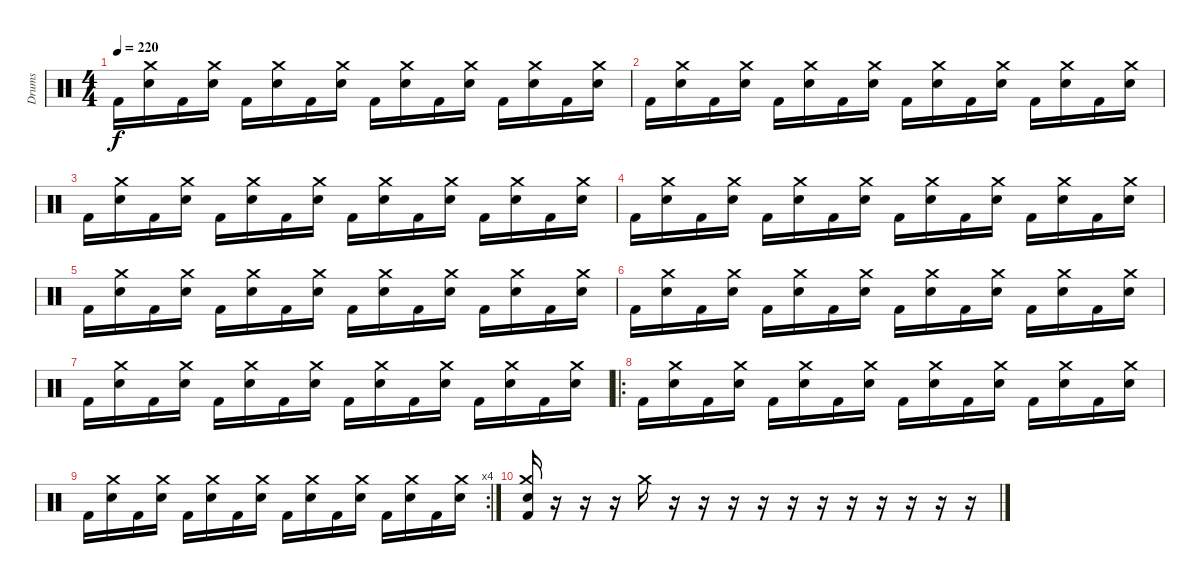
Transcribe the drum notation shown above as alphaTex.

\track ("Drums" "Drums") {instrument percussion}
\staff {score}
\articulation defaults
\ts (4 4)
\tempo 220
\clef neutral
\ks c "Kick (hit) 2".16{dy f}
("Crash medium (hit)" "Electric Snare (hit)").16 "Kick (hit) 2".16 ("Crash medium (hit)" "Electric Snare (hit)").16 "Kick (hit) 2".16 ("Crash medium (hit)" "Electric Snare (hit)").16 "Kick (hit) 2".16 ("Crash medium (hit)" "Electric Snare (hit)").16 "Kick (hit) 2".16 ("Crash medium (hit)" "Electric Snare (hit)").16 "Kick (hit) 2".16 ("Crash medium (hit)" "Electric Snare (hit)").16 "Kick (hit) 2".16 ("Crash medium (hit)" "Electric Snare (hit)").16 "Kick (hit) 2".16 ("Crash medium (hit)" "Electric Snare (hit)").16 |
"Kick (hit) 2".16 ("Crash medium (hit)" "Electric Snare (hit)").16 "Kick (hit) 2".16 ("Crash medium (hit)" "Electric Snare (hit)").16 "Kick (hit) 2".16 ("Crash medium (hit)" "Electric Snare (hit)").16 "Kick (hit) 2".16 ("Crash medium (hit)" "Electric Snare (hit)").16 "Kick (hit) 2".16 ("Crash medium (hit)" "Electric Snare (hit)").16 "Kick (hit) 2".16 ("Crash medium (hit)" "Electric Snare (hit)").16 "Kick (hit) 2".16 ("Crash medium (hit)" "Electric Snare (hit)").16 "Kick (hit) 2".16 ("Crash medium (hit)" "Electric Snare (hit)").16 |
"Kick (hit) 2".16 ("Crash medium (hit)" "Electric Snare (hit)").16 "Kick (hit) 2".16 ("Crash medium (hit)" "Electric Snare (hit)").16 "Kick (hit) 2".16 ("Crash medium (hit)" "Electric Snare (hit)").16 "Kick (hit) 2".16 ("Crash medium (hit)" "Electric Snare (hit)").16 "Kick (hit) 2".16 ("Crash medium (hit)" "Electric Snare (hit)").16 "Kick (hit) 2".16 ("Crash medium (hit)" "Electric Snare (hit)").16 "Kick (hit) 2".16 ("Crash medium (hit)" "Electric Snare (hit)").16 "Kick (hit) 2".16 ("Crash medium (hit)" "Electric Snare (hit)").16 |
"Kick (hit) 2".16 ("Crash medium (hit)" "Electric Snare (hit)").16 "Kick (hit) 2".16 ("Crash medium (hit)" "Electric Snare (hit)").16 "Kick (hit) 2".16 ("Crash medium (hit)" "Electric Snare (hit)").16 "Kick (hit) 2".16 ("Crash medium (hit)" "Electric Snare (hit)").16 "Kick (hit) 2".16 ("Crash medium (hit)" "Electric Snare (hit)").16 "Kick (hit) 2".16 ("Crash medium (hit)" "Electric Snare (hit)").16 "Kick (hit) 2".16 ("Crash medium (hit)" "Electric Snare (hit)").16 "Kick (hit) 2".16 ("Crash medium (hit)" "Electric Snare (hit)").16 |
"Kick (hit) 2".16 ("Crash medium (hit)" "Electric Snare (hit)").16 "Kick (hit) 2".16 ("Crash medium (hit)" "Electric Snare (hit)").16 "Kick (hit) 2".16 ("Crash medium (hit)" "Electric Snare (hit)").16 "Kick (hit) 2".16 ("Crash medium (hit)" "Electric Snare (hit)").16 "Kick (hit) 2".16 ("Crash medium (hit)" "Electric Snare (hit)").16 "Kick (hit) 2".16 ("Crash medium (hit)" "Electric Snare (hit)").16 "Kick (hit) 2".16 ("Crash medium (hit)" "Electric Snare (hit)").16 "Kick (hit) 2".16 ("Crash medium (hit)" "Electric Snare (hit)").16 |
"Kick (hit) 2".16 ("Crash medium (hit)" "Electric Snare (hit)").16 "Kick (hit) 2".16 ("Crash medium (hit)" "Electric Snare (hit)").16 "Kick (hit) 2".16 ("Crash medium (hit)" "Electric Snare (hit)").16 "Kick (hit) 2".16 ("Crash medium (hit)" "Electric Snare (hit)").16 "Kick (hit) 2".16 ("Crash medium (hit)" "Electric Snare (hit)").16 "Kick (hit) 2".16 ("Crash medium (hit)" "Electric Snare (hit)").16 "Kick (hit) 2".16 ("Crash medium (hit)" "Electric Snare (hit)").16 "Kick (hit) 2".16 ("Crash medium (hit)" "Electric Snare (hit)").16 |
"Kick (hit) 2".16 ("Crash medium (hit)" "Electric Snare (hit)").16 "Kick (hit) 2".16 ("Crash medium (hit)" "Electric Snare (hit)").16 "Kick (hit) 2".16 ("Crash medium (hit)" "Electric Snare (hit)").16 "Kick (hit) 2".16 ("Crash medium (hit)" "Electric Snare (hit)").16 "Kick (hit) 2".16 ("Crash medium (hit)" "Electric Snare (hit)").16 "Kick (hit) 2".16 ("Crash medium (hit)" "Electric Snare (hit)").16 "Kick (hit) 2".16 ("Crash medium (hit)" "Electric Snare (hit)").16 "Kick (hit) 2".16 ("Crash medium (hit)" "Electric Snare (hit)").16 |
\ro "Kick (hit) 2".16
("Crash medium (hit)" "Electric Snare (hit)").16 "Kick (hit) 2".16 ("Crash medium (hit)" "Electric Snare (hit)").16 "Kick (hit) 2".16 ("Crash medium (hit)" "Electric Snare (hit)").16 "Kick (hit) 2".16 ("Crash medium (hit)" "Electric Snare (hit)").16 "Kick (hit) 2".16 ("Crash medium (hit)" "Electric Snare (hit)").16 "Kick (hit) 2".16 ("Crash medium (hit)" "Electric Snare (hit)").16 "Kick (hit) 2".16 ("Crash medium (hit)" "Electric Snare (hit)").16 "Kick (hit) 2".16 ("Crash medium (hit)" "Electric Snare (hit)").16 |
\rc 4 "Kick (hit) 2".16
("Crash medium (hit)" "Electric Snare (hit)").16 "Kick (hit) 2".16 ("Crash medium (hit)" "Electric Snare (hit)").16 "Kick (hit) 2".16 ("Crash medium (hit)" "Electric Snare (hit)").16 "Kick (hit) 2".16 ("Crash medium (hit)" "Electric Snare (hit)").16 "Kick (hit) 2".16 ("Crash medium (hit)" "Electric Snare (hit)").16 "Kick (hit) 2".16 ("Crash medium (hit)" "Electric Snare (hit)").16 "Kick (hit) 2".16 ("Crash medium (hit)" "Electric Snare (hit)").16 "Kick (hit) 2".16 ("Crash medium (hit)" "Electric Snare (hit)").16 |
("Crash medium (hit)" "Electric Snare (hit)" "Kick (hit) 2").16 r.16 r.16 r.16 "Crash medium (hit)".16 r.16 r.16 r.16 r.16 r.16 r.16 r.16 r.16 r.16 r.16 r.16
